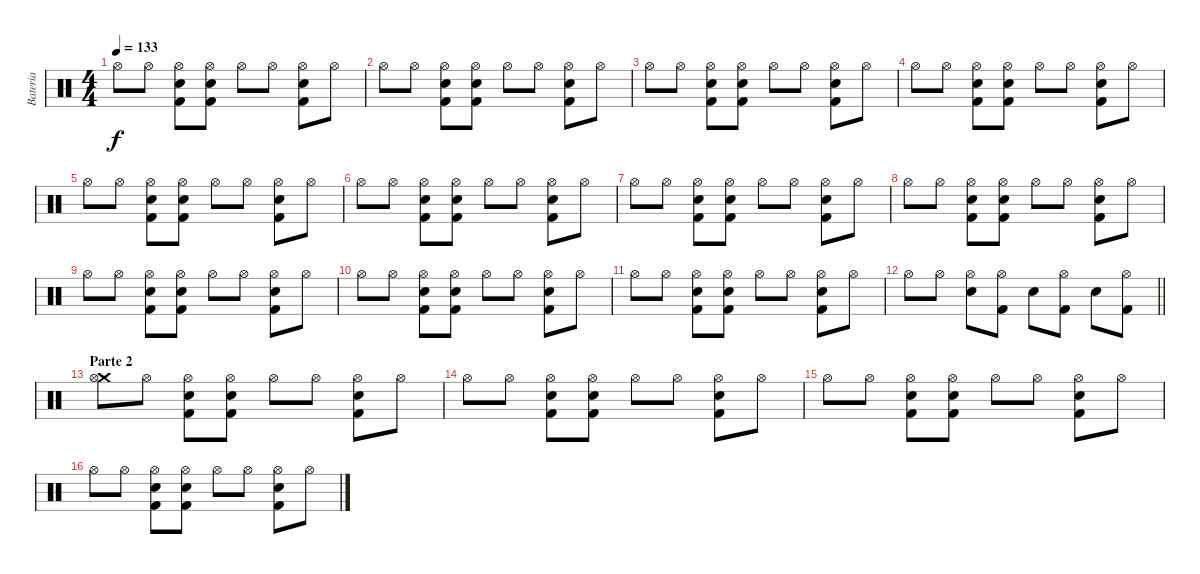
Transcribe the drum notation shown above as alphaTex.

\track ("Bateria" "Bateria") {instrument percussion}
\staff {score}
\articulation defaults
\ts (4 4)
\tempo 133
\clef neutral
\ks c "Hi-Hat (open)".8{dy f} "Hi-Hat (open)".8
("Kick (hit) 2" "Hi-Hat (open)" "Electric Snare (hit)").8 ("Kick (hit) 2" "Hi-Hat (open)" "Electric Snare (hit)").8 "Hi-Hat (open)".8 "Hi-Hat (open)".8 ("Kick (hit) 2" "Hi-Hat (open)" "Electric Snare (hit)").8 "Hi-Hat (open)".8 |
"Hi-Hat (open)".8 "Hi-Hat (open)".8 ("Kick (hit) 2" "Hi-Hat (open)" "Electric Snare (hit)").8 ("Kick (hit) 2" "Hi-Hat (open)" "Electric Snare (hit)").8 "Hi-Hat (open)".8 "Hi-Hat (open)".8 ("Kick (hit) 2" "Hi-Hat (open)" "Electric Snare (hit)").8 "Hi-Hat (open)".8 |
"Hi-Hat (open)".8 "Hi-Hat (open)".8 ("Kick (hit) 2" "Hi-Hat (open)" "Electric Snare (hit)").8 ("Kick (hit) 2" "Hi-Hat (open)" "Electric Snare (hit)").8 "Hi-Hat (open)".8 "Hi-Hat (open)".8 ("Kick (hit) 2" "Hi-Hat (open)" "Electric Snare (hit)").8 "Hi-Hat (open)".8 |
"Hi-Hat (open)".8 "Hi-Hat (open)".8 ("Kick (hit) 2" "Hi-Hat (open)" "Electric Snare (hit)").8 ("Kick (hit) 2" "Hi-Hat (open)" "Electric Snare (hit)").8 "Hi-Hat (open)".8 "Hi-Hat (open)".8 ("Kick (hit) 2" "Hi-Hat (open)" "Electric Snare (hit)").8 "Hi-Hat (open)".8 |
"Hi-Hat (open)".8 "Hi-Hat (open)".8 ("Kick (hit) 2" "Hi-Hat (open)" "Electric Snare (hit)").8 ("Kick (hit) 2" "Hi-Hat (open)" "Electric Snare (hit)").8 "Hi-Hat (open)".8 "Hi-Hat (open)".8 ("Kick (hit) 2" "Hi-Hat (open)" "Electric Snare (hit)").8 "Hi-Hat (open)".8 |
"Hi-Hat (open)".8 "Hi-Hat (open)".8 ("Kick (hit) 2" "Hi-Hat (open)" "Electric Snare (hit)").8 ("Kick (hit) 2" "Hi-Hat (open)" "Electric Snare (hit)").8 "Hi-Hat (open)".8 "Hi-Hat (open)".8 ("Kick (hit) 2" "Hi-Hat (open)" "Electric Snare (hit)").8 "Hi-Hat (open)".8 |
"Hi-Hat (open)".8 "Hi-Hat (open)".8 ("Kick (hit) 2" "Hi-Hat (open)" "Electric Snare (hit)").8 ("Kick (hit) 2" "Hi-Hat (open)" "Electric Snare (hit)").8 "Hi-Hat (open)".8 "Hi-Hat (open)".8 ("Kick (hit) 2" "Hi-Hat (open)" "Electric Snare (hit)").8 "Hi-Hat (open)".8 |
"Hi-Hat (open)".8 "Hi-Hat (open)".8 ("Kick (hit) 2" "Hi-Hat (open)" "Electric Snare (hit)").8 ("Kick (hit) 2" "Hi-Hat (open)" "Electric Snare (hit)").8 "Hi-Hat (open)".8 "Hi-Hat (open)".8 ("Kick (hit) 2" "Hi-Hat (open)" "Electric Snare (hit)").8 "Hi-Hat (open)".8 |
"Hi-Hat (open)".8 "Hi-Hat (open)".8 ("Kick (hit) 2" "Hi-Hat (open)" "Electric Snare (hit)").8 ("Kick (hit) 2" "Hi-Hat (open)" "Electric Snare (hit)").8 "Hi-Hat (open)".8 "Hi-Hat (open)".8 ("Kick (hit) 2" "Hi-Hat (open)" "Electric Snare (hit)").8 "Hi-Hat (open)".8 |
"Hi-Hat (open)".8 "Hi-Hat (open)".8 ("Kick (hit) 2" "Hi-Hat (open)" "Electric Snare (hit)").8 ("Kick (hit) 2" "Hi-Hat (open)" "Electric Snare (hit)").8 "Hi-Hat (open)".8 "Hi-Hat (open)".8 ("Kick (hit) 2" "Hi-Hat (open)" "Electric Snare (hit)").8 "Hi-Hat (open)".8 |
"Hi-Hat (open)".8 "Hi-Hat (open)".8 ("Kick (hit) 2" "Hi-Hat (open)" "Electric Snare (hit)").8 ("Kick (hit) 2" "Hi-Hat (open)" "Electric Snare (hit)").8 "Hi-Hat (open)".8 "Hi-Hat (open)".8 ("Kick (hit) 2" "Hi-Hat (open)" "Electric Snare (hit)").8 "Hi-Hat (open)".8 |
\barLineRight lightlight "Hi-Hat (open)".8 "Hi-Hat (open)".8
("Hi-Hat (open)" "Electric Snare (hit)").8 ("Kick (hit) 2" "Hi-Hat (open)").8 "Electric Snare (hit)".8 ("Kick (hit) 2" "Hi-Hat (open)").8 "Electric Snare (hit)".8 ("Kick (hit) 2" "Hi-Hat (open)").8 |
\section ("" "Parte 2")
("Crash medium (hit)" "Hi-Hat (open)").8 "Hi-Hat (open)".8 ("Kick (hit) 2" "Hi-Hat (open)" "Electric Snare (hit)").8 ("Kick (hit) 2" "Hi-Hat (open)" "Electric Snare (hit)").8 "Hi-Hat (open)".8 "Hi-Hat (open)".8 ("Kick (hit) 2" "Hi-Hat (open)" "Electric Snare (hit)").8 "Hi-Hat (open)".8 |
"Hi-Hat (open)".8 "Hi-Hat (open)".8 ("Kick (hit) 2" "Hi-Hat (open)" "Electric Snare (hit)").8 ("Kick (hit) 2" "Hi-Hat (open)" "Electric Snare (hit)").8 "Hi-Hat (open)".8 "Hi-Hat (open)".8 ("Kick (hit) 2" "Hi-Hat (open)" "Electric Snare (hit)").8 "Hi-Hat (open)".8 |
"Hi-Hat (open)".8 "Hi-Hat (open)".8 ("Kick (hit) 2" "Hi-Hat (open)" "Electric Snare (hit)").8 ("Kick (hit) 2" "Hi-Hat (open)" "Electric Snare (hit)").8 "Hi-Hat (open)".8 "Hi-Hat (open)".8 ("Kick (hit) 2" "Hi-Hat (open)" "Electric Snare (hit)").8 "Hi-Hat (open)".8 |
"Hi-Hat (open)".8 "Hi-Hat (open)".8 ("Kick (hit) 2" "Hi-Hat (open)" "Electric Snare (hit)").8 ("Kick (hit) 2" "Hi-Hat (open)" "Electric Snare (hit)").8 "Hi-Hat (open)".8 "Hi-Hat (open)".8 ("Kick (hit) 2" "Hi-Hat (open)" "Electric Snare (hit)").8 "Hi-Hat (open)".8
